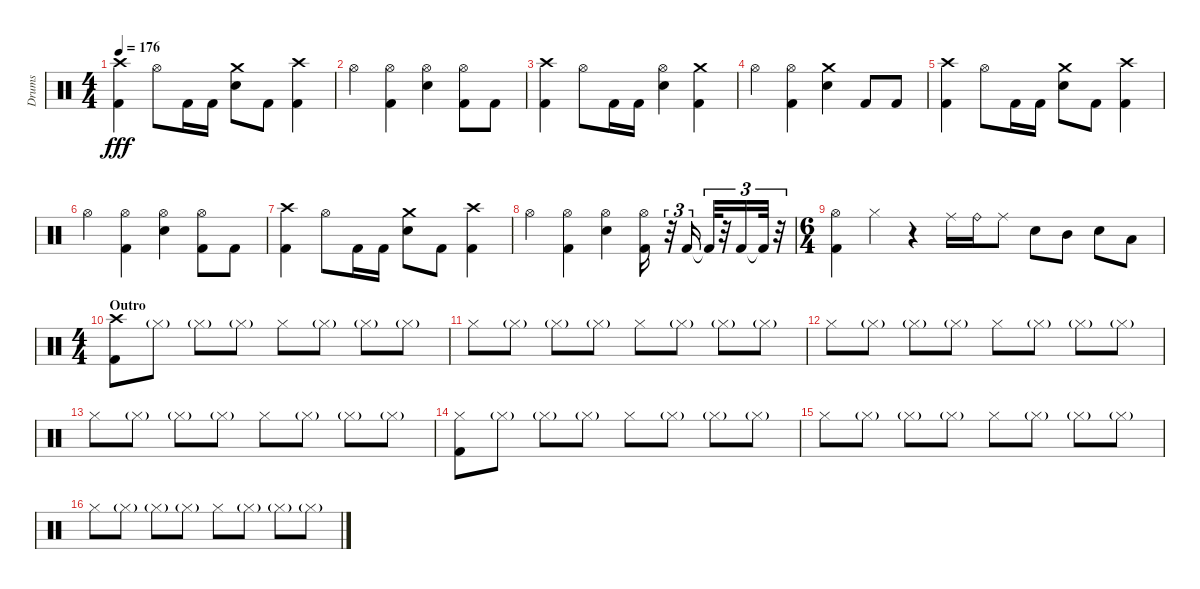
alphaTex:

\track ("Drums" "Drums") {instrument percussion}
\staff {score}
\articulation defaults
\ts (4 4)
\tempo 176
\clef neutral
\ks aminor
("Kick (hit) 2" "Crash high (hit)").4{dy fff} "Hi-Hat (open)".8 "Kick (hit) 2".16 "Kick (hit) 2".16 ("Crash medium (hit)" "Snare (hit) 2").8 "Kick (hit) 2".8 ("Kick (hit) 2" "Crash high (hit)").4 |
"Hi-Hat (open)".4 ("Hi-Hat (open)" "Kick (hit) 2").4 ("Snare (hit) 2" "Hi-Hat (open)").4 ("Kick (hit) 2" "Hi-Hat (open)").8 "Kick (hit) 2".8 |
("Crash high (hit)" "Kick (hit) 2").4 "Hi-Hat (open)".8 "Kick (hit) 2".16 "Kick (hit) 2".16 ("Hi-Hat (open)" "Snare (hit) 2").4 ("Crash medium (hit)" "Kick (hit) 2").4 |
"Hi-Hat (open)".4 ("Hi-Hat (open)" "Kick (hit) 2").4 ("Crash medium (hit)" "Snare (hit) 2").4 "Kick (hit) 2".8 "Kick (hit) 2".8 |
("Crash high (hit)" "Kick (hit) 2").4 "Hi-Hat (open)".8 "Kick (hit) 2".16 "Kick (hit) 2".16 ("Crash medium (hit)" "Snare (hit) 2").8 "Kick (hit) 2".8 ("Crash high (hit)" "Kick (hit) 2").4 |
"Hi-Hat (open)".4 ("Kick (hit) 2" "Hi-Hat (open)").4 ("Hi-Hat (open)" "Snare (hit) 2").4 ("Hi-Hat (open)" "Kick (hit) 2").8 "Kick (hit) 2".8 |
("Crash high (hit)" "Kick (hit) 2").4 "Hi-Hat (open)".8 "Kick (hit) 2".16 "Kick (hit) 2".16 ("Snare (hit) 2" "Crash medium (hit)").8 "Kick (hit) 2".8 ("Crash high (hit)" "Kick (hit) 2").4 |
"Hi-Hat (open)".4 ("Kick (hit) 2" "Hi-Hat (open)").4 ("Hi-Hat (open)" "Snare (hit) 2").4 ("Kick (hit) 2" "Hi-Hat (open)").16 r.32{tu (3 2)} "Kick (hit) 2".16{tu (3 2)} "Kick (hit) 2"{t}.32{tu (3 2)} r.32{tu (3 2)} "Kick (hit) 2".16{tu (3 2)} "Kick (hit) 2"{t}.32{tu (3 2)} r.32{tu (3 2)} |
\ts (6 4)
("Hi-Hat (open)" "Kick (hit) 2").4 "Hi-Hat (closed)".4 r.4 "Ride (middle)".16 "Ride (bell)".16 "Ride (middle)".8 "Snare (hit) 2".8 "Mid Tom (hit)".8 "Snare (hit) 2".8 "Low Tom (hit)".8 |
\ts (4 4)
\section ("" "Outro")
("Crash high (hit)" "Kick (hit) 2").8 "Hi-Hat (closed)"{g}.8 "Hi-Hat (closed)"{g}.8 "Hi-Hat (closed)"{g}.8 "Hi-Hat (closed)".8 "Hi-Hat (closed)"{g}.8 "Hi-Hat (closed)"{g}.8 "Hi-Hat (closed)"{g}.8 |
"Hi-Hat (closed)".8 "Hi-Hat (closed)"{g}.8 "Hi-Hat (closed)"{g}.8 "Hi-Hat (closed)"{g}.8 "Hi-Hat (closed)".8 "Hi-Hat (closed)"{g}.8 "Hi-Hat (closed)"{g}.8 "Hi-Hat (closed)"{g}.8 |
"Hi-Hat (closed)".8 "Hi-Hat (closed)"{g}.8 "Hi-Hat (closed)"{g}.8 "Hi-Hat (closed)"{g}.8 "Hi-Hat (closed)".8 "Hi-Hat (closed)"{g}.8 "Hi-Hat (closed)"{g}.8 "Hi-Hat (closed)"{g}.8 |
"Hi-Hat (closed)".8 "Hi-Hat (closed)"{g}.8 "Hi-Hat (closed)"{g}.8 "Hi-Hat (closed)"{g}.8 "Hi-Hat (closed)".8 "Hi-Hat (closed)"{g}.8 "Hi-Hat (closed)"{g}.8 "Hi-Hat (closed)"{g}.8 |
("Kick (hit) 2" "Hi-Hat (closed)").8 "Hi-Hat (closed)"{g}.8 "Hi-Hat (closed)"{g}.8 "Hi-Hat (closed)"{g}.8 "Hi-Hat (closed)".8 "Hi-Hat (closed)"{g}.8 "Hi-Hat (closed)"{g}.8 "Hi-Hat (closed)"{g}.8 |
"Hi-Hat (closed)".8 "Hi-Hat (closed)"{g}.8 "Hi-Hat (closed)"{g}.8 "Hi-Hat (closed)"{g}.8 "Hi-Hat (closed)".8 "Hi-Hat (closed)"{g}.8 "Hi-Hat (closed)"{g}.8 "Hi-Hat (closed)"{g}.8 |
"Hi-Hat (closed)".8 "Hi-Hat (closed)"{g}.8 "Hi-Hat (closed)"{g}.8 "Hi-Hat (closed)"{g}.8 "Hi-Hat (closed)".8 "Hi-Hat (closed)"{g}.8 "Hi-Hat (closed)"{g}.8 "Hi-Hat (closed)"{g}.8
